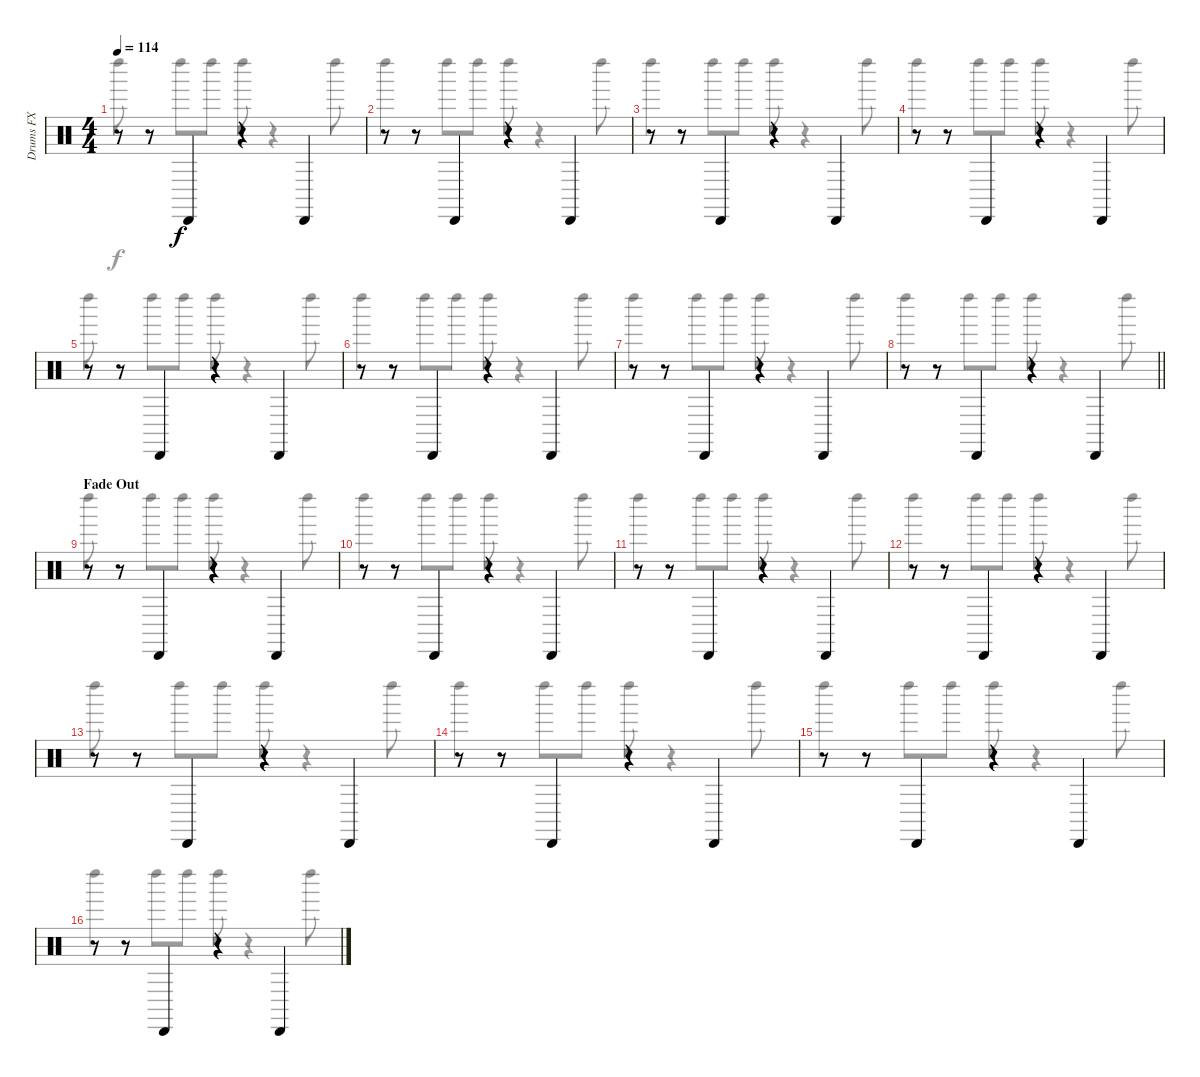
\track ("Drums FX" "Drums FX") {instrument percussion}
\staff {score}
\articulation defaults
\voice
\ts (4 4)
\tempo 114
\clef neutral
\ks c
r.8{dy f} r.8 "Cabasa (hit)".4 r.4 "Cabasa (hit)".4 |
r.8 r.8 "Cabasa (hit)".4 r.4 "Cabasa (hit)".4 |
r.8 r.8 "Cabasa (hit)".4 r.4 "Cabasa (hit)".4 |
r.8 r.8 "Cabasa (hit)".4 r.4 "Cabasa (hit)".4 |
r.8 r.8 "Cabasa (hit)".4 r.4 "Cabasa (hit)".4 |
r.8 r.8 "Cabasa (hit)".4 r.4 "Cabasa (hit)".4 |
r.8 r.8 "Cabasa (hit)".4 r.4 "Cabasa (hit)".4 |
\barLineRight lightlight
r.8 r.8 "Cabasa (hit)".4 r.4 "Cabasa (hit)".4 |
\section ("" "Fade Out")
r.8 r.8 "Cabasa (hit)".4 r.4 "Cabasa (hit)".4 |
r.8 r.8 "Cabasa (hit)".4 r.4 "Cabasa (hit)".4 |
r.8 r.8 "Cabasa (hit)".4 r.4 "Cabasa (hit)".4 |
r.8 r.8 "Cabasa (hit)".4 r.4 "Cabasa (hit)".4 |
r.8 r.8 "Cabasa (hit)".4 r.4 "Cabasa (hit)".4 |
r.8 r.8 "Cabasa (hit)".4 r.4 "Cabasa (hit)".4 |
r.8 r.8 "Cabasa (hit)".4 r.4 "Cabasa (hit)".4 |
r.8 r.8 "Cabasa (hit)".4 r.4 "Cabasa (hit)".4
\voice
\clef neutral
\ottava regular
\simile none
\ks c "Left Maraca (hit)".8{dy f}
r.8 "Left Maraca (hit)".8 "Left Maraca (hit)".8 "Left Maraca (hit)".8 r.4 "Left Maraca (hit)".8 |
"Left Maraca (hit)".4 "Left Maraca (hit)".8 "Left Maraca (hit)".8 "Left Maraca (hit)".8 r.4 "Left Maraca (hit)".8 |
"Left Maraca (hit)".4 "Left Maraca (hit)".8 "Left Maraca (hit)".8 "Left Maraca (hit)".8 r.4 "Left Maraca (hit)".8 |
"Left Maraca (hit)".4 "Left Maraca (hit)".8 "Left Maraca (hit)".8 "Left Maraca (hit)".8 r.4 "Left Maraca (hit)".8 |
"Left Maraca (hit)".8 r.8 "Left Maraca (hit)".8 "Left Maraca (hit)".8 "Left Maraca (hit)".8 r.4 "Left Maraca (hit)".8 |
"Left Maraca (hit)".4 "Left Maraca (hit)".8 "Left Maraca (hit)".8 "Left Maraca (hit)".8 r.4 "Left Maraca (hit)".8 |
"Left Maraca (hit)".4 "Left Maraca (hit)".8 "Left Maraca (hit)".8 "Left Maraca (hit)".8 r.4 "Left Maraca (hit)".8 |
\barLineRight lightlight "Left Maraca (hit)".4 "Left Maraca (hit)".8 "Left Maraca (hit)".8 "Left Maraca (hit)".8
r.4 "Left Maraca (hit)".8 |
"Left Maraca (hit)".8 r.8 "Left Maraca (hit)".8 "Left Maraca (hit)".8 "Left Maraca (hit)".8 r.4 "Left Maraca (hit)".8 |
"Left Maraca (hit)".4 "Left Maraca (hit)".8 "Left Maraca (hit)".8 "Left Maraca (hit)".8 r.4 "Left Maraca (hit)".8 |
"Left Maraca (hit)".4 "Left Maraca (hit)".8 "Left Maraca (hit)".8 "Left Maraca (hit)".8 r.4 "Left Maraca (hit)".8 |
"Left Maraca (hit)".4 "Left Maraca (hit)".8 "Left Maraca (hit)".8 "Left Maraca (hit)".8 r.4 "Left Maraca (hit)".8 |
"Left Maraca (hit)".8 r.8 "Left Maraca (hit)".8 "Left Maraca (hit)".8 "Left Maraca (hit)".8 r.4 "Left Maraca (hit)".8 |
"Left Maraca (hit)".4 "Left Maraca (hit)".8 "Left Maraca (hit)".8 "Left Maraca (hit)".8 r.4 "Left Maraca (hit)".8 |
"Left Maraca (hit)".4 "Left Maraca (hit)".8 "Left Maraca (hit)".8 "Left Maraca (hit)".8 r.4 "Left Maraca (hit)".8 |
"Left Maraca (hit)".4 "Left Maraca (hit)".8 "Left Maraca (hit)".8 "Left Maraca (hit)".8 r.4 "Left Maraca (hit)".8
